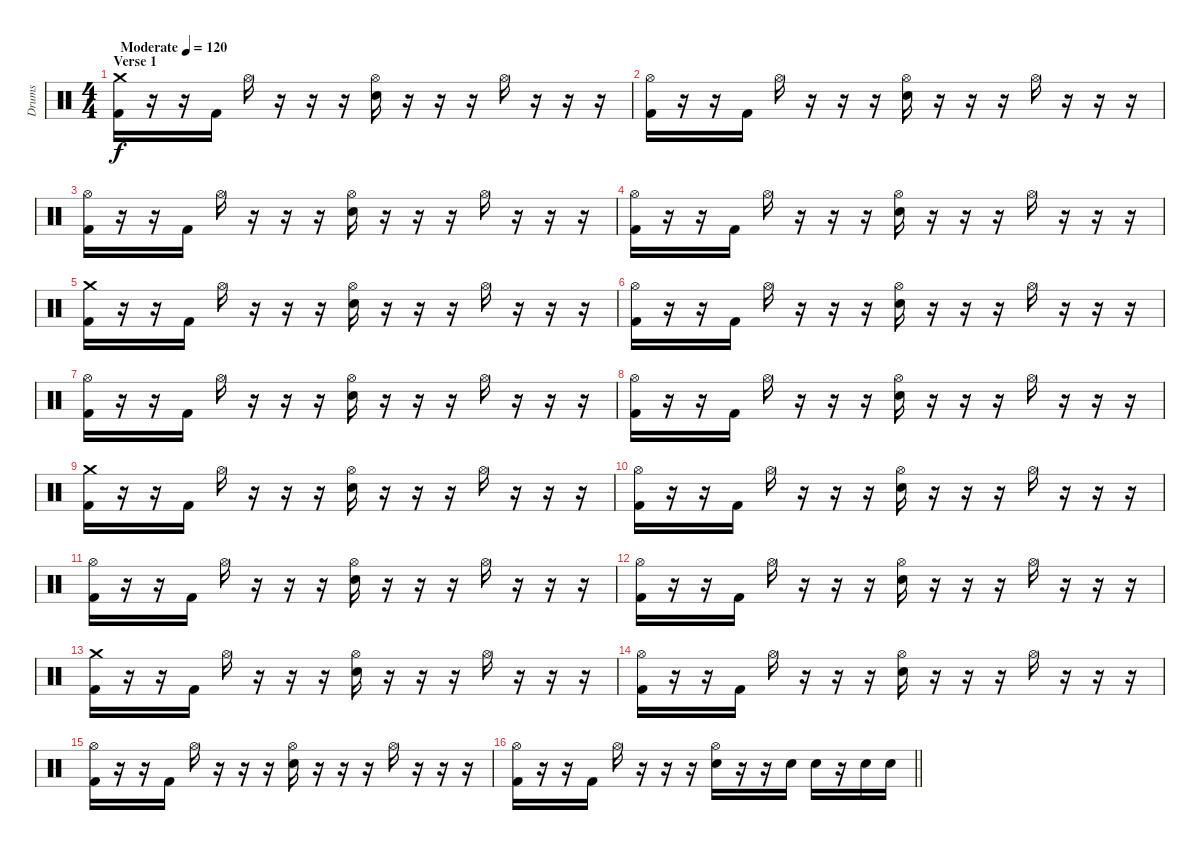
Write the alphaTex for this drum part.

\track ("Drums" "Drums") {instrument percussion}
\staff {score}
\articulation defaults
\ts (4 4)
\section ("" "Verse 1")
\tempo (120 "Moderate")
\clef neutral
\ks c
("Crash medium (hit)" "Kick (hit) 2").16{dy f} r.16 r.16 "Kick (hit) 2".16 "Hi-Hat (open)".16 r.16 r.16 r.16 ("Hi-Hat (open)" "Electric Snare (hit)").16 r.16 r.16 r.16 "Hi-Hat (open)".16 r.16 r.16 r.16 |
("Hi-Hat (open)" "Kick (hit) 2").16 r.16 r.16 "Kick (hit) 2".16 "Hi-Hat (open)".16 r.16 r.16 r.16 ("Hi-Hat (open)" "Electric Snare (hit)").16 r.16 r.16 r.16 "Hi-Hat (open)".16 r.16 r.16 r.16 |
("Hi-Hat (open)" "Kick (hit) 2").16 r.16 r.16 "Kick (hit) 2".16 "Hi-Hat (open)".16 r.16 r.16 r.16 ("Hi-Hat (open)" "Electric Snare (hit)").16 r.16 r.16 r.16 "Hi-Hat (open)".16 r.16 r.16 r.16 |
("Hi-Hat (open)" "Kick (hit) 2").16 r.16 r.16 "Kick (hit) 2".16 "Hi-Hat (open)".16 r.16 r.16 r.16 ("Hi-Hat (open)" "Electric Snare (hit)").16 r.16 r.16 r.16 "Hi-Hat (open)".16 r.16 r.16 r.16 |
("Crash medium (hit)" "Kick (hit) 2").16 r.16 r.16 "Kick (hit) 2".16 "Hi-Hat (open)".16 r.16 r.16 r.16 ("Hi-Hat (open)" "Electric Snare (hit)").16 r.16 r.16 r.16 "Hi-Hat (open)".16 r.16 r.16 r.16 |
("Hi-Hat (open)" "Kick (hit) 2").16 r.16 r.16 "Kick (hit) 2".16 "Hi-Hat (open)".16 r.16 r.16 r.16 ("Hi-Hat (open)" "Electric Snare (hit)").16 r.16 r.16 r.16 "Hi-Hat (open)".16 r.16 r.16 r.16 |
("Hi-Hat (open)" "Kick (hit) 2").16 r.16 r.16 "Kick (hit) 2".16 "Hi-Hat (open)".16 r.16 r.16 r.16 ("Hi-Hat (open)" "Electric Snare (hit)").16 r.16 r.16 r.16 "Hi-Hat (open)".16 r.16 r.16 r.16 |
("Hi-Hat (open)" "Kick (hit) 2").16 r.16 r.16 "Kick (hit) 2".16 "Hi-Hat (open)".16 r.16 r.16 r.16 ("Hi-Hat (open)" "Electric Snare (hit)").16 r.16 r.16 r.16 "Hi-Hat (open)".16 r.16 r.16 r.16 |
("Crash medium (hit)" "Kick (hit) 2").16 r.16 r.16 "Kick (hit) 2".16 "Hi-Hat (open)".16 r.16 r.16 r.16 ("Hi-Hat (open)" "Electric Snare (hit)").16 r.16 r.16 r.16 "Hi-Hat (open)".16 r.16 r.16 r.16 |
("Hi-Hat (open)" "Kick (hit) 2").16 r.16 r.16 "Kick (hit) 2".16 "Hi-Hat (open)".16 r.16 r.16 r.16 ("Hi-Hat (open)" "Electric Snare (hit)").16 r.16 r.16 r.16 "Hi-Hat (open)".16 r.16 r.16 r.16 |
("Hi-Hat (open)" "Kick (hit) 2").16 r.16 r.16 "Kick (hit) 2".16 "Hi-Hat (open)".16 r.16 r.16 r.16 ("Hi-Hat (open)" "Electric Snare (hit)").16 r.16 r.16 r.16 "Hi-Hat (open)".16 r.16 r.16 r.16 |
("Hi-Hat (open)" "Kick (hit) 2").16 r.16 r.16 "Kick (hit) 2".16 "Hi-Hat (open)".16 r.16 r.16 r.16 ("Hi-Hat (open)" "Electric Snare (hit)").16 r.16 r.16 r.16 "Hi-Hat (open)".16 r.16 r.16 r.16 |
("Crash medium (hit)" "Kick (hit) 2").16 r.16 r.16 "Kick (hit) 2".16 "Hi-Hat (open)".16 r.16 r.16 r.16 ("Hi-Hat (open)" "Electric Snare (hit)").16 r.16 r.16 r.16 "Hi-Hat (open)".16 r.16 r.16 r.16 |
("Hi-Hat (open)" "Kick (hit) 2").16 r.16 r.16 "Kick (hit) 2".16 "Hi-Hat (open)".16 r.16 r.16 r.16 ("Hi-Hat (open)" "Electric Snare (hit)").16 r.16 r.16 r.16 "Hi-Hat (open)".16 r.16 r.16 r.16 |
("Hi-Hat (open)" "Kick (hit) 2").16 r.16 r.16 "Kick (hit) 2".16 "Hi-Hat (open)".16 r.16 r.16 r.16 ("Hi-Hat (open)" "Electric Snare (hit)").16 r.16 r.16 r.16 "Hi-Hat (open)".16 r.16 r.16 r.16 |
\barLineRight lightlight
("Hi-Hat (open)" "Kick (hit) 2").16 r.16 r.16 "Kick (hit) 2".16 "Hi-Hat (open)".16 r.16 r.16 r.16 ("Hi-Hat (open)" "Electric Snare (hit)").16 r.16 r.16 "Electric Snare (hit)".16 "Electric Snare (hit)".16 r.16 "Electric Snare (hit)".16 "Electric Snare (hit)".16
